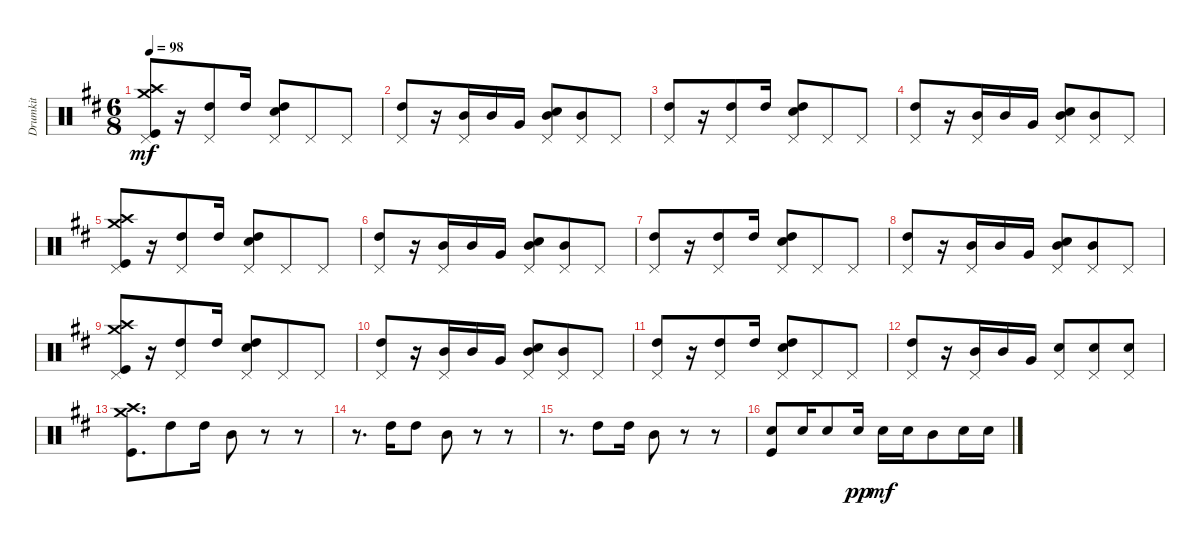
\track ("Drumkit" "Drumkit") {instrument percussion}
\staff {score}
\articulation defaults
\ts (6 8)
\tempo 98
\clef neutral
\ks d
("Pedal Hi-Hat (hit)" "Crash medium (hit)" "Crash high (hit)" "Kick (hit)").8{dy mf} r.16 ("High Tom (hit)" "Pedal Hi-Hat (hit)").8 "High Tom (hit)".16 ("High Tom (hit)" "Snare (hit) 2" "Pedal Hi-Hat (hit)").8 "Pedal Hi-Hat (hit)".8 "Pedal Hi-Hat (hit)".8 |
("High Tom (hit)" "Pedal Hi-Hat (hit)").8 r.16 ("Mid Tom (hit)" "Pedal Hi-Hat (hit)").16 "Mid Tom (hit)".16 "Very Low Tom (hit)".16 ("Mid Tom (hit)" "Snare (hit) 2" "Pedal Hi-Hat (hit)").8 ("Mid Tom (hit)" "Pedal Hi-Hat (hit)").8 "Pedal Hi-Hat (hit)".8 |
("High Tom (hit)" "Pedal Hi-Hat (hit)").8 r.16 ("High Tom (hit)" "Pedal Hi-Hat (hit)").8 "High Tom (hit)".16 ("High Tom (hit)" "Snare (hit) 2" "Pedal Hi-Hat (hit)").8 "Pedal Hi-Hat (hit)".8 "Pedal Hi-Hat (hit)".8 |
("High Tom (hit)" "Pedal Hi-Hat (hit)").8 r.16 ("Mid Tom (hit)" "Pedal Hi-Hat (hit)").16 "Mid Tom (hit)".16 "Very Low Tom (hit)".16 ("Mid Tom (hit)" "Snare (hit) 2" "Pedal Hi-Hat (hit)").8 ("Mid Tom (hit)" "Pedal Hi-Hat (hit)").8 "Pedal Hi-Hat (hit)".8 |
("Pedal Hi-Hat (hit)" "Crash medium (hit)" "Crash high (hit)" "Kick (hit)").8 r.16 ("High Tom (hit)" "Pedal Hi-Hat (hit)").8 "High Tom (hit)".16 ("High Tom (hit)" "Snare (hit) 2" "Pedal Hi-Hat (hit)").8 "Pedal Hi-Hat (hit)".8 "Pedal Hi-Hat (hit)".8 |
("High Tom (hit)" "Pedal Hi-Hat (hit)").8 r.16 ("Mid Tom (hit)" "Pedal Hi-Hat (hit)").16 "Mid Tom (hit)".16 "Very Low Tom (hit)".16 ("Mid Tom (hit)" "Snare (hit) 2" "Pedal Hi-Hat (hit)").8 ("Mid Tom (hit)" "Pedal Hi-Hat (hit)").8 "Pedal Hi-Hat (hit)".8 |
("High Tom (hit)" "Pedal Hi-Hat (hit)").8 r.16 ("High Tom (hit)" "Pedal Hi-Hat (hit)").8 "High Tom (hit)".16 ("High Tom (hit)" "Snare (hit) 2" "Pedal Hi-Hat (hit)").8 "Pedal Hi-Hat (hit)".8 "Pedal Hi-Hat (hit)".8 |
("High Tom (hit)" "Pedal Hi-Hat (hit)").8 r.16 ("Mid Tom (hit)" "Pedal Hi-Hat (hit)").16 "Mid Tom (hit)".16 "Very Low Tom (hit)".16 ("Mid Tom (hit)" "Snare (hit) 2" "Pedal Hi-Hat (hit)").8 ("Mid Tom (hit)" "Pedal Hi-Hat (hit)").8 "Pedal Hi-Hat (hit)".8 |
("Pedal Hi-Hat (hit)" "Crash medium (hit)" "Crash high (hit)" "Kick (hit)").8 r.16 ("High Tom (hit)" "Pedal Hi-Hat (hit)").8 "High Tom (hit)".16 ("High Tom (hit)" "Snare (hit) 2" "Pedal Hi-Hat (hit)").8 "Pedal Hi-Hat (hit)".8 "Pedal Hi-Hat (hit)".8 |
("High Tom (hit)" "Pedal Hi-Hat (hit)").8 r.16 ("Mid Tom (hit)" "Pedal Hi-Hat (hit)").16 "Mid Tom (hit)".16 "Very Low Tom (hit)".16 ("Mid Tom (hit)" "Snare (hit) 2" "Pedal Hi-Hat (hit)").8 ("Mid Tom (hit)" "Pedal Hi-Hat (hit)").8 "Pedal Hi-Hat (hit)".8 |
("High Tom (hit)" "Pedal Hi-Hat (hit)").8 r.16 ("High Tom (hit)" "Pedal Hi-Hat (hit)").8 "High Tom (hit)".16 ("High Tom (hit)" "Snare (hit) 2" "Pedal Hi-Hat (hit)").8 "Pedal Hi-Hat (hit)".8 "Pedal Hi-Hat (hit)".8 |
("High Tom (hit)" "Pedal Hi-Hat (hit)").8 r.16 ("Mid Tom (hit)" "Pedal Hi-Hat (hit)").16 "Mid Tom (hit)".16 "Very Low Tom (hit)".16 ("Snare (hit) 2" "Pedal Hi-Hat (hit)").8 ("Pedal Hi-Hat (hit)" "Snare (hit) 2").8 ("Pedal Hi-Hat (hit)" "Snare (hit) 2").8 |
("Kick (hit)" "Crash high (hit)" "Crash medium (hit)").8{d} "High Tom (hit)".8 "High Tom (hit)".16 "Mid Tom (hit)".8 r.8 r.8 |
r.8{d} "High Tom (hit)".16 "High Tom (hit)".8 "Mid Tom (hit)".8 r.8 r.8 |
r.8{d} "High Tom (hit)".8 "High Tom (hit)".16 "Mid Tom (hit)".8 r.8 r.8 |
("Kick (hit)" "Snare (hit) 2").8 "Snare (hit) 2".16 "Snare (hit) 2".8 "Snare (hit) 2".16{dy pp} "Snare (hit) 2".16{dy mf} "Snare (hit) 2".16 "Mid Tom (hit)".8 "Snare (hit) 2".16 "Snare (hit) 2".16
